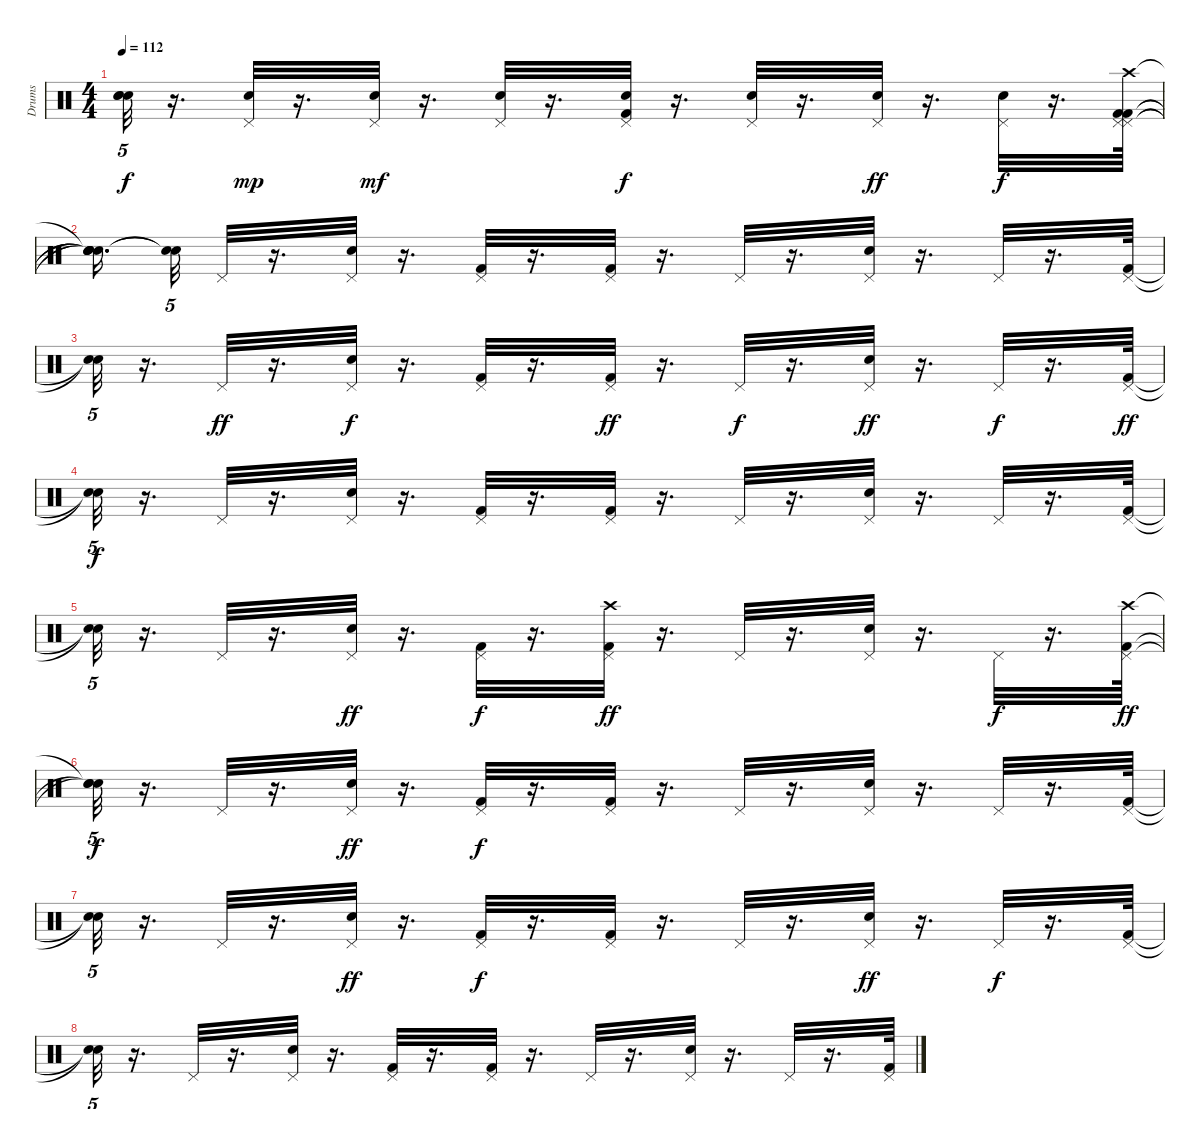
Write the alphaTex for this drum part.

\track ("Drums" "Drums") {instrument percussion}
\staff {score}
\articulation defaults
\ts (4 4)
\tempo 112
\clef neutral
\ks c
("Snare (hit)"{t} "Snare (hit)"{t} "Snare (hit)"{t}).32{tu (5 4) dy f} r.16{d} ("Pedal Hi-Hat (hit)" "Snare (hit) 2").32{dy mp} r.16{d} ("Pedal Hi-Hat (hit)" "Snare (hit) 2").32{dy mf} r.16{d} ("Pedal Hi-Hat (hit)" "Snare (hit) 2").32 r.16{d} ("Kick (hit) 2" "Pedal Hi-Hat (hit)" "Snare (hit) 2").32{dy f} r.16{d} ("Pedal Hi-Hat (hit)" "Snare (hit) 2").32 r.16{d} ("Snare (hit) 2" "Pedal Hi-Hat (hit)").32{dy ff} r.16{d} ("Snare (hit) 2" "Pedal Hi-Hat (hit)").32{dy f} r.16{d} ("Pedal Hi-Hat (hit)" "Kick (hit) 2" "Kick (hit) 2" "Crash high (hit)" "Pedal Hi-Hat (hit)").64 |
("Snare (hit)"{t} "Snare (hit)"{t} "Snare (hit)"{t} "Snare (hit)"{t} "Snare (hit)"{t}).16{d} ("Snare (hit)"{t} "Snare (hit)"{t}).32{tu (5 4)} "Pedal Hi-Hat (hit)".32 r.16{d} ("Pedal Hi-Hat (hit)" "Snare (hit) 2").32 r.16{d} ("Pedal Hi-Hat (hit)" "Kick (hit) 2").32 r.16{d} ("Kick (hit) 2" "Pedal Hi-Hat (hit)").32 r.16{d} "Pedal Hi-Hat (hit)".32 r.16{d} ("Snare (hit) 2" "Pedal Hi-Hat (hit)").32 r.16{d} "Pedal Hi-Hat (hit)".32 r.16{d} ("Pedal Hi-Hat (hit)" "Kick (hit) 2").64 |
("Snare (hit)"{t} "Snare (hit)"{t}).32{tu (5 4)} r.16{d} "Pedal Hi-Hat (hit)".32{dy ff} r.16{d} ("Pedal Hi-Hat (hit)" "Snare (hit) 2").32{dy f} r.16{d} ("Kick (hit) 2" "Pedal Hi-Hat (hit)").32 r.16{d} ("Pedal Hi-Hat (hit)" "Kick (hit) 2").32{dy ff} r.16{d} "Pedal Hi-Hat (hit)".32{dy f} r.16{d} ("Pedal Hi-Hat (hit)" "Snare (hit) 2").32{dy ff} r.16{d} "Pedal Hi-Hat (hit)".32{dy f} r.16{d} ("Pedal Hi-Hat (hit)" "Kick (hit) 2").64{dy ff} |
("Snare (hit)"{t} "Snare (hit)"{t}).32{tu (5 4) dy f} r.16{d} "Pedal Hi-Hat (hit)".32 r.16{d} ("Pedal Hi-Hat (hit)" "Snare (hit) 2").32 r.16{d} ("Pedal Hi-Hat (hit)" "Kick (hit) 2").32 r.16{d} ("Pedal Hi-Hat (hit)" "Kick (hit) 2").32 r.16{d} "Pedal Hi-Hat (hit)".32 r.16{d} ("Snare (hit) 2" "Pedal Hi-Hat (hit)").32 r.16{d} "Pedal Hi-Hat (hit)".32 r.16{d} ("Pedal Hi-Hat (hit)" "Kick (hit) 2").64 |
("Snare (hit)"{t} "Snare (hit)"{t}).32{tu (5 4)} r.16{d} "Pedal Hi-Hat (hit)".32 r.16{d} ("Pedal Hi-Hat (hit)" "Snare (hit) 2").32{dy ff} r.16{d} ("Kick (hit) 2" "Pedal Hi-Hat (hit)").32{dy f} r.16{d} ("Pedal Hi-Hat (hit)" "Kick (hit) 2" "Crash high (hit)").32{dy ff} r.16{d} "Pedal Hi-Hat (hit)".32 r.16{d} ("Snare (hit) 2" "Pedal Hi-Hat (hit)").32 r.16{d} "Pedal Hi-Hat (hit)".32{dy f} r.16{d} ("Pedal Hi-Hat (hit)" "Kick (hit) 2" "Crash high (hit)").64{dy ff} |
("Snare (hit)"{t} "Snare (hit)"{t} "Snare (hit)"{t}).32{tu (5 4) dy f} r.16{d} "Pedal Hi-Hat (hit)".32 r.16{d} ("Pedal Hi-Hat (hit)" "Snare (hit) 2").32{dy ff} r.16{d} ("Kick (hit) 2" "Pedal Hi-Hat (hit)").32{dy f} r.16{d} ("Kick (hit) 2" "Pedal Hi-Hat (hit)").32 r.16{d} "Pedal Hi-Hat (hit)".32 r.16{d} ("Pedal Hi-Hat (hit)" "Snare (hit) 2").32 r.16{d} "Pedal Hi-Hat (hit)".32 r.16{d} ("Pedal Hi-Hat (hit)" "Kick (hit) 2").64 |
("Snare (hit)"{t} "Snare (hit)"{t}).32{tu (5 4)} r.16{d} "Pedal Hi-Hat (hit)".32 r.16{d} ("Snare (hit) 2" "Pedal Hi-Hat (hit)").32{dy ff} r.16{d} ("Pedal Hi-Hat (hit)" "Kick (hit) 2").32{dy f} r.16{d} ("Pedal Hi-Hat (hit)" "Kick (hit) 2").32 r.16{d} "Pedal Hi-Hat (hit)".32 r.16{d} ("Snare (hit) 2" "Pedal Hi-Hat (hit)").32{dy ff} r.16{d} "Pedal Hi-Hat (hit)".32{dy f} r.16{d} ("Kick (hit) 2" "Pedal Hi-Hat (hit)").64 |
("Snare (hit)"{t} "Snare (hit)"{t}).32{tu (5 4)} r.16{d} "Pedal Hi-Hat (hit)".32 r.16{d} ("Pedal Hi-Hat (hit)" "Snare (hit) 2").32 r.16{d} ("Pedal Hi-Hat (hit)" "Kick (hit) 2").32 r.16{d} ("Kick (hit) 2" "Pedal Hi-Hat (hit)").32 r.16{d} "Pedal Hi-Hat (hit)".32 r.16{d} ("Snare (hit) 2" "Pedal Hi-Hat (hit)").32 r.16{d} "Pedal Hi-Hat (hit)".32 r.16{d} ("Kick (hit) 2" "Pedal Hi-Hat (hit)").64
